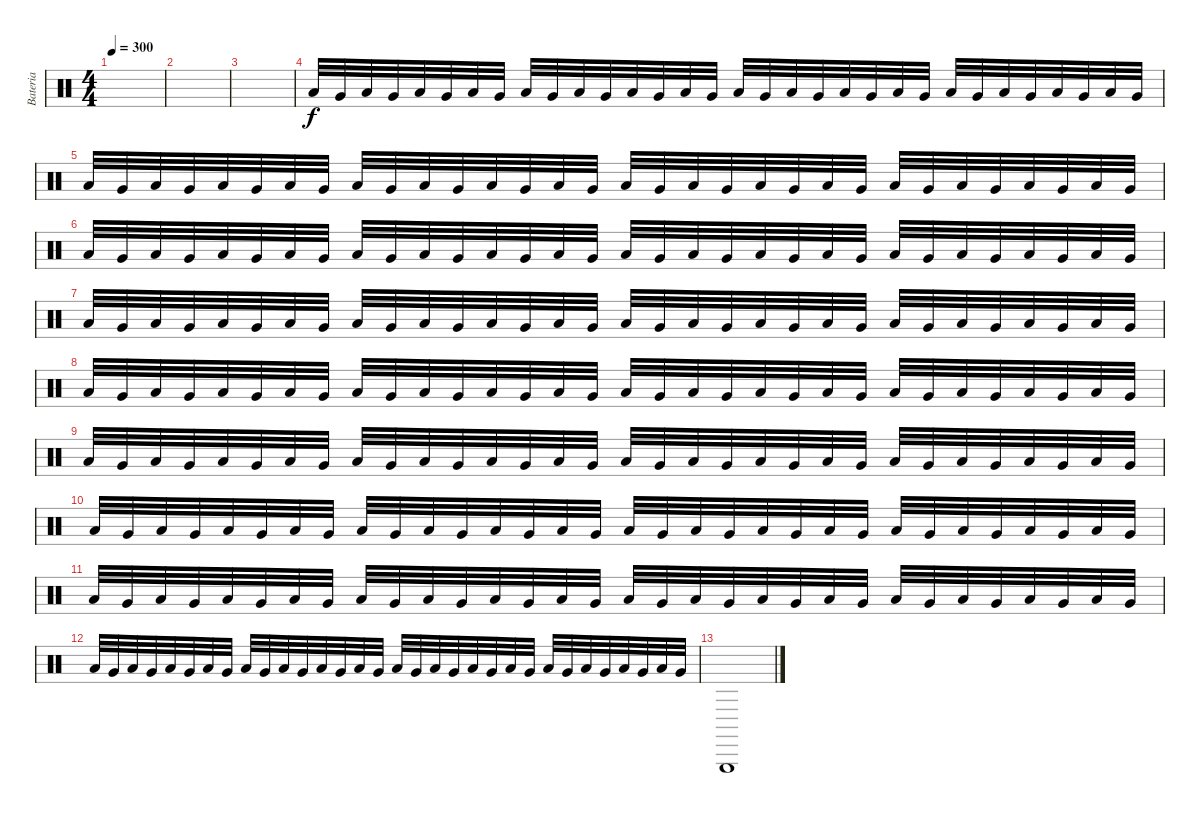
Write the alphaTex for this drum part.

\track ("Bateria" "Bateria") {instrument percussion}
\staff {score}
\articulation defaults
\ts (4 4)
\tempo 300
\clef neutral
\ks c
|
|
|
"Low Tom (hit)".32 "Very Low Tom (hit)".32 "Low Tom (hit)".32 "Very Low Tom (hit)".32 "Low Tom (hit)".32 "Very Low Tom (hit)".32 "Low Tom (hit)".32 "Very Low Tom (hit)".32 "Low Tom (hit)".32 "Very Low Tom (hit)".32 "Low Tom (hit)".32 "Very Low Tom (hit)".32 "Low Tom (hit)".32 "Very Low Tom (hit)".32 "Low Tom (hit)".32 "Very Low Tom (hit)".32 "Low Tom (hit)".32 "Very Low Tom (hit)".32 "Low Tom (hit)".32 "Very Low Tom (hit)".32 "Low Tom (hit)".32 "Very Low Tom (hit)".32 "Low Tom (hit)".32 "Very Low Tom (hit)".32 "Low Tom (hit)".32 "Very Low Tom (hit)".32 "Low Tom (hit)".32 "Very Low Tom (hit)".32 "Low Tom (hit)".32 "Very Low Tom (hit)".32 "Low Tom (hit)".32 "Very Low Tom (hit)".32 |
"Low Tom (hit)".32 "Very Low Tom (hit)".32 "Low Tom (hit)".32 "Very Low Tom (hit)".32 "Low Tom (hit)".32 "Very Low Tom (hit)".32 "Low Tom (hit)".32 "Very Low Tom (hit)".32 "Low Tom (hit)".32 "Very Low Tom (hit)".32 "Low Tom (hit)".32 "Very Low Tom (hit)".32 "Low Tom (hit)".32 "Very Low Tom (hit)".32 "Low Tom (hit)".32 "Very Low Tom (hit)".32 "Low Tom (hit)".32 "Very Low Tom (hit)".32 "Low Tom (hit)".32 "Very Low Tom (hit)".32 "Low Tom (hit)".32 "Very Low Tom (hit)".32 "Low Tom (hit)".32 "Very Low Tom (hit)".32 "Low Tom (hit)".32 "Very Low Tom (hit)".32 "Low Tom (hit)".32 "Very Low Tom (hit)".32 "Low Tom (hit)".32 "Very Low Tom (hit)".32 "Low Tom (hit)".32 "Very Low Tom (hit)".32 |
"Low Tom (hit)".32 "Very Low Tom (hit)".32 "Low Tom (hit)".32 "Very Low Tom (hit)".32 "Low Tom (hit)".32 "Very Low Tom (hit)".32 "Low Tom (hit)".32 "Very Low Tom (hit)".32 "Low Tom (hit)".32 "Very Low Tom (hit)".32 "Low Tom (hit)".32 "Very Low Tom (hit)".32 "Low Tom (hit)".32 "Very Low Tom (hit)".32 "Low Tom (hit)".32 "Very Low Tom (hit)".32 "Low Tom (hit)".32 "Very Low Tom (hit)".32 "Low Tom (hit)".32 "Very Low Tom (hit)".32 "Low Tom (hit)".32 "Very Low Tom (hit)".32 "Low Tom (hit)".32 "Very Low Tom (hit)".32 "Low Tom (hit)".32 "Very Low Tom (hit)".32 "Low Tom (hit)".32 "Very Low Tom (hit)".32 "Low Tom (hit)".32 "Very Low Tom (hit)".32 "Low Tom (hit)".32 "Very Low Tom (hit)".32 |
"Low Tom (hit)".32 "Very Low Tom (hit)".32 "Low Tom (hit)".32 "Very Low Tom (hit)".32 "Low Tom (hit)".32 "Very Low Tom (hit)".32 "Low Tom (hit)".32 "Very Low Tom (hit)".32 "Low Tom (hit)".32 "Very Low Tom (hit)".32 "Low Tom (hit)".32 "Very Low Tom (hit)".32 "Low Tom (hit)".32 "Very Low Tom (hit)".32 "Low Tom (hit)".32 "Very Low Tom (hit)".32 "Low Tom (hit)".32 "Very Low Tom (hit)".32 "Low Tom (hit)".32 "Very Low Tom (hit)".32 "Low Tom (hit)".32 "Very Low Tom (hit)".32 "Low Tom (hit)".32 "Very Low Tom (hit)".32 "Low Tom (hit)".32 "Very Low Tom (hit)".32 "Low Tom (hit)".32 "Very Low Tom (hit)".32 "Low Tom (hit)".32 "Very Low Tom (hit)".32 "Low Tom (hit)".32 "Very Low Tom (hit)".32 |
"Low Tom (hit)".32 "Very Low Tom (hit)".32 "Low Tom (hit)".32 "Very Low Tom (hit)".32 "Low Tom (hit)".32 "Very Low Tom (hit)".32 "Low Tom (hit)".32 "Very Low Tom (hit)".32 "Low Tom (hit)".32 "Very Low Tom (hit)".32 "Low Tom (hit)".32 "Very Low Tom (hit)".32 "Low Tom (hit)".32 "Very Low Tom (hit)".32 "Low Tom (hit)".32 "Very Low Tom (hit)".32 "Low Tom (hit)".32 "Very Low Tom (hit)".32 "Low Tom (hit)".32 "Very Low Tom (hit)".32 "Low Tom (hit)".32 "Very Low Tom (hit)".32 "Low Tom (hit)".32 "Very Low Tom (hit)".32 "Low Tom (hit)".32 "Very Low Tom (hit)".32 "Low Tom (hit)".32 "Very Low Tom (hit)".32 "Low Tom (hit)".32 "Very Low Tom (hit)".32 "Low Tom (hit)".32 "Very Low Tom (hit)".32 |
"Low Tom (hit)".32 "Very Low Tom (hit)".32 "Low Tom (hit)".32 "Very Low Tom (hit)".32 "Low Tom (hit)".32 "Very Low Tom (hit)".32 "Low Tom (hit)".32 "Very Low Tom (hit)".32 "Low Tom (hit)".32 "Very Low Tom (hit)".32 "Low Tom (hit)".32 "Very Low Tom (hit)".32 "Low Tom (hit)".32 "Very Low Tom (hit)".32 "Low Tom (hit)".32 "Very Low Tom (hit)".32 "Low Tom (hit)".32 "Very Low Tom (hit)".32 "Low Tom (hit)".32 "Very Low Tom (hit)".32 "Low Tom (hit)".32 "Very Low Tom (hit)".32 "Low Tom (hit)".32 "Very Low Tom (hit)".32 "Low Tom (hit)".32 "Very Low Tom (hit)".32 "Low Tom (hit)".32 "Very Low Tom (hit)".32 "Low Tom (hit)".32 "Very Low Tom (hit)".32 "Low Tom (hit)".32 "Very Low Tom (hit)".32 |
"Low Tom (hit)".32 "Very Low Tom (hit)".32 "Low Tom (hit)".32 "Very Low Tom (hit)".32 "Low Tom (hit)".32 "Very Low Tom (hit)".32 "Low Tom (hit)".32 "Very Low Tom (hit)".32 "Low Tom (hit)".32 "Very Low Tom (hit)".32 "Low Tom (hit)".32 "Very Low Tom (hit)".32 "Low Tom (hit)".32 "Very Low Tom (hit)".32 "Low Tom (hit)".32 "Very Low Tom (hit)".32 "Low Tom (hit)".32 "Very Low Tom (hit)".32 "Low Tom (hit)".32 "Very Low Tom (hit)".32 "Low Tom (hit)".32 "Very Low Tom (hit)".32 "Low Tom (hit)".32 "Very Low Tom (hit)".32 "Low Tom (hit)".32 "Very Low Tom (hit)".32 "Low Tom (hit)".32 "Very Low Tom (hit)".32 "Low Tom (hit)".32 "Very Low Tom (hit)".32 "Low Tom (hit)".32 "Very Low Tom (hit)".32 |
"Low Tom (hit)".32 "Very Low Tom (hit)".32 "Low Tom (hit)".32 "Very Low Tom (hit)".32 "Low Tom (hit)".32 "Very Low Tom (hit)".32 "Low Tom (hit)".32 "Very Low Tom (hit)".32 "Low Tom (hit)".32 "Very Low Tom (hit)".32 "Low Tom (hit)".32 "Very Low Tom (hit)".32 "Low Tom (hit)".32 "Very Low Tom (hit)".32 "Low Tom (hit)".32 "Very Low Tom (hit)".32 "Low Tom (hit)".32 "Very Low Tom (hit)".32 "Low Tom (hit)".32 "Very Low Tom (hit)".32 "Low Tom (hit)".32 "Very Low Tom (hit)".32 "Low Tom (hit)".32 "Very Low Tom (hit)".32 "Low Tom (hit)".32 "Very Low Tom (hit)".32 "Low Tom (hit)".32 "Very Low Tom (hit)".32 "Low Tom (hit)".32 "Very Low Tom (hit)".32 "Low Tom (hit)".32 "Very Low Tom (hit)".32 |
"Low Tom (hit)".32 "Very Low Tom (hit)".32 "Low Tom (hit)".32 "Very Low Tom (hit)".32 "Low Tom (hit)".32 "Very Low Tom (hit)".32 "Low Tom (hit)".32 "Very Low Tom (hit)".32 "Low Tom (hit)".32 "Very Low Tom (hit)".32 "Low Tom (hit)".32 "Very Low Tom (hit)".32 "Low Tom (hit)".32 "Very Low Tom (hit)".32 "Low Tom (hit)".32 "Very Low Tom (hit)".32 "Low Tom (hit)".32 "Very Low Tom (hit)".32 "Low Tom (hit)".32 "Very Low Tom (hit)".32 "Low Tom (hit)".32 "Very Low Tom (hit)".32 "Low Tom (hit)".32 "Very Low Tom (hit)".32 "Low Tom (hit)".32 "Very Low Tom (hit)".32 "Low Tom (hit)".32 "Very Low Tom (hit)".32 "Low Tom (hit)".32 "Very Low Tom (hit)".32 "Low Tom (hit)".32 "Very Low Tom (hit)".32 |
"Triangle (hit)".1
